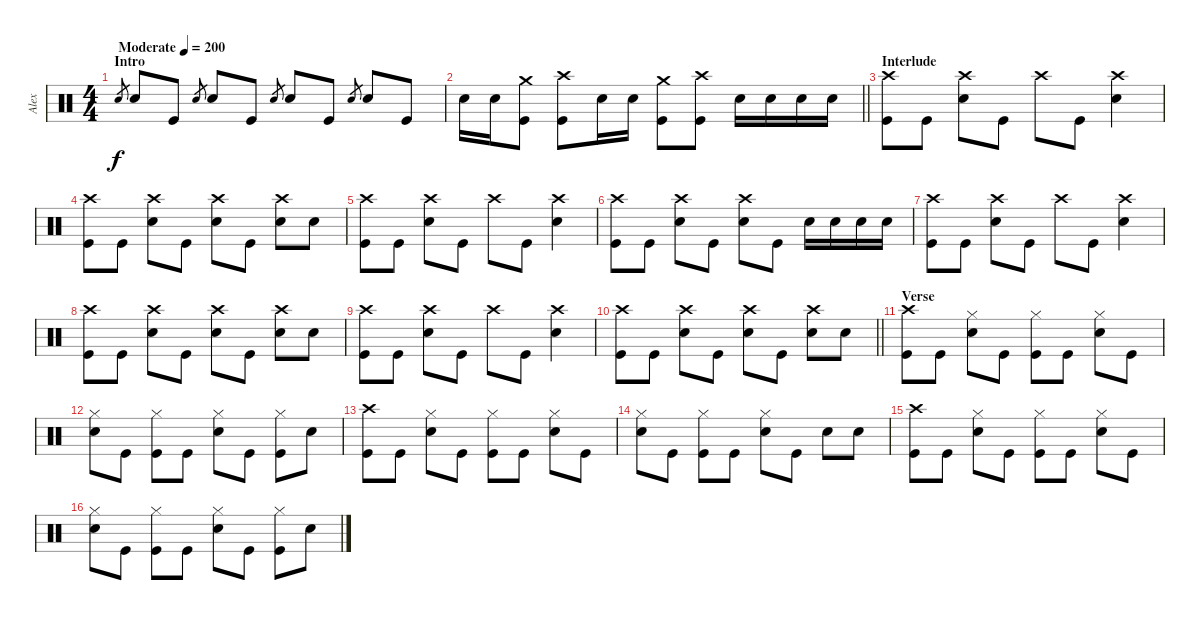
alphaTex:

\track ("Alex" "Alex") {instrument percussion}
\staff {score}
\articulation defaults
\ts (4 4)
\section ("" "Intro")
\tempo (200 "Moderate")
\clef neutral
\ks c "Snare (hit) 2".8{gr dy f} "Snare (hit) 2".8 "Kick (hit)".8 "Snare (hit) 2".8{gr} "Snare (hit) 2".8 "Kick (hit)".8 "Snare (hit) 2".8{gr} "Snare (hit) 2".8 "Kick (hit)".8 "Snare (hit) 2".8{gr} "Snare (hit) 2".8 "Kick (hit)".8
|
\barLineRight lightlight "Snare (hit) 2".16 "Snare (hit) 2".16
("Crash medium (hit)" "Kick (hit)").8 ("Crash high (hit)" "Kick (hit)").8 "Snare (hit) 2".16 "Snare (hit) 2".16 ("Crash medium (hit)" "Kick (hit)").8 ("Crash high (hit)" "Kick (hit)").8 "Snare (hit) 2".16 "Snare (hit) 2".16 "Snare (hit) 2".16 "Snare (hit) 2".16 |
\section ("" "Interlude")
("Crash high (hit)" "Kick (hit)").8 "Kick (hit)".8 ("Crash high (hit)" "Snare (hit) 2").8 "Kick (hit)".8 "Crash high (hit)".8 "Kick (hit)".8 ("Crash high (hit)" "Snare (hit) 2").4 |
("Crash high (hit)" "Kick (hit)").8 "Kick (hit)".8 ("Crash high (hit)" "Snare (hit) 2").8 "Kick (hit)".8 ("Crash high (hit)" "Snare (hit) 2").8 "Kick (hit)".8 ("Crash high (hit)" "Snare (hit) 2").8 "Snare (hit) 2".8 |
("Crash high (hit)" "Kick (hit)").8 "Kick (hit)".8 ("Crash high (hit)" "Snare (hit) 2").8 "Kick (hit)".8 "Crash high (hit)".8 "Kick (hit)".8 ("Crash high (hit)" "Snare (hit) 2").4 |
("Crash high (hit)" "Kick (hit)").8 "Kick (hit)".8 ("Crash high (hit)" "Snare (hit) 2").8 "Kick (hit)".8 ("Crash high (hit)" "Snare (hit) 2").8 "Kick (hit)".8 "Snare (hit) 2".16 "Snare (hit) 2".16 "Snare (hit) 2".16 "Snare (hit) 2".16 |
("Crash high (hit)" "Kick (hit)").8 "Kick (hit)".8 ("Crash high (hit)" "Snare (hit) 2").8 "Kick (hit)".8 "Crash high (hit)".8 "Kick (hit)".8 ("Crash high (hit)" "Snare (hit) 2").4 |
("Crash high (hit)" "Kick (hit)").8 "Kick (hit)".8 ("Crash high (hit)" "Snare (hit) 2").8 "Kick (hit)".8 ("Crash high (hit)" "Snare (hit) 2").8 "Kick (hit)".8 ("Crash high (hit)" "Snare (hit) 2").8 "Snare (hit) 2".8 |
("Crash high (hit)" "Kick (hit)").8 "Kick (hit)".8 ("Crash high (hit)" "Snare (hit) 2").8 "Kick (hit)".8 "Crash high (hit)".8 "Kick (hit)".8 ("Crash high (hit)" "Snare (hit) 2").4 |
\barLineRight lightlight
("Crash high (hit)" "Kick (hit)").8 "Kick (hit)".8 ("Crash high (hit)" "Snare (hit) 2").8 "Kick (hit)".8 ("Crash high (hit)" "Snare (hit) 2").8 "Kick (hit)".8 ("Crash high (hit)" "Snare (hit) 2").8 "Snare (hit) 2".8 |
\section ("" "Verse")
("Crash high (hit)" "Kick (hit)").8 "Kick (hit)".8 ("Hi-Hat (closed)" "Snare (hit) 2").8 "Kick (hit)".8 ("Hi-Hat (closed)" "Kick (hit)").8 "Kick (hit)".8 ("Hi-Hat (closed)" "Snare (hit) 2").8 "Kick (hit)".8 |
("Hi-Hat (closed)" "Snare (hit) 2").8 "Kick (hit)".8 ("Hi-Hat (closed)" "Kick (hit)").8 "Kick (hit)".8 ("Hi-Hat (closed)" "Snare (hit) 2").8 "Kick (hit)".8 ("Hi-Hat (closed)" "Kick (hit)").8 "Snare (hit) 2".8 |
("Crash high (hit)" "Kick (hit)").8 "Kick (hit)".8 ("Hi-Hat (closed)" "Snare (hit) 2").8 "Kick (hit)".8 ("Hi-Hat (closed)" "Kick (hit)").8 "Kick (hit)".8 ("Hi-Hat (closed)" "Snare (hit) 2").8 "Kick (hit)".8 |
("Hi-Hat (closed)" "Snare (hit) 2").8 "Kick (hit)".8 ("Hi-Hat (closed)" "Kick (hit)").8 "Kick (hit)".8 ("Hi-Hat (closed)" "Snare (hit) 2").8 "Kick (hit)".8 "Snare (hit) 2".8 "Snare (hit) 2".8 |
("Crash high (hit)" "Kick (hit)").8 "Kick (hit)".8 ("Hi-Hat (closed)" "Snare (hit) 2").8 "Kick (hit)".8 ("Hi-Hat (closed)" "Kick (hit)").8 "Kick (hit)".8 ("Hi-Hat (closed)" "Snare (hit) 2").8 "Kick (hit)".8 |
("Hi-Hat (closed)" "Snare (hit) 2").8 "Kick (hit)".8 ("Hi-Hat (closed)" "Kick (hit)").8 "Kick (hit)".8 ("Hi-Hat (closed)" "Snare (hit) 2").8 "Kick (hit)".8 ("Hi-Hat (closed)" "Kick (hit)").8 "Snare (hit) 2".8
